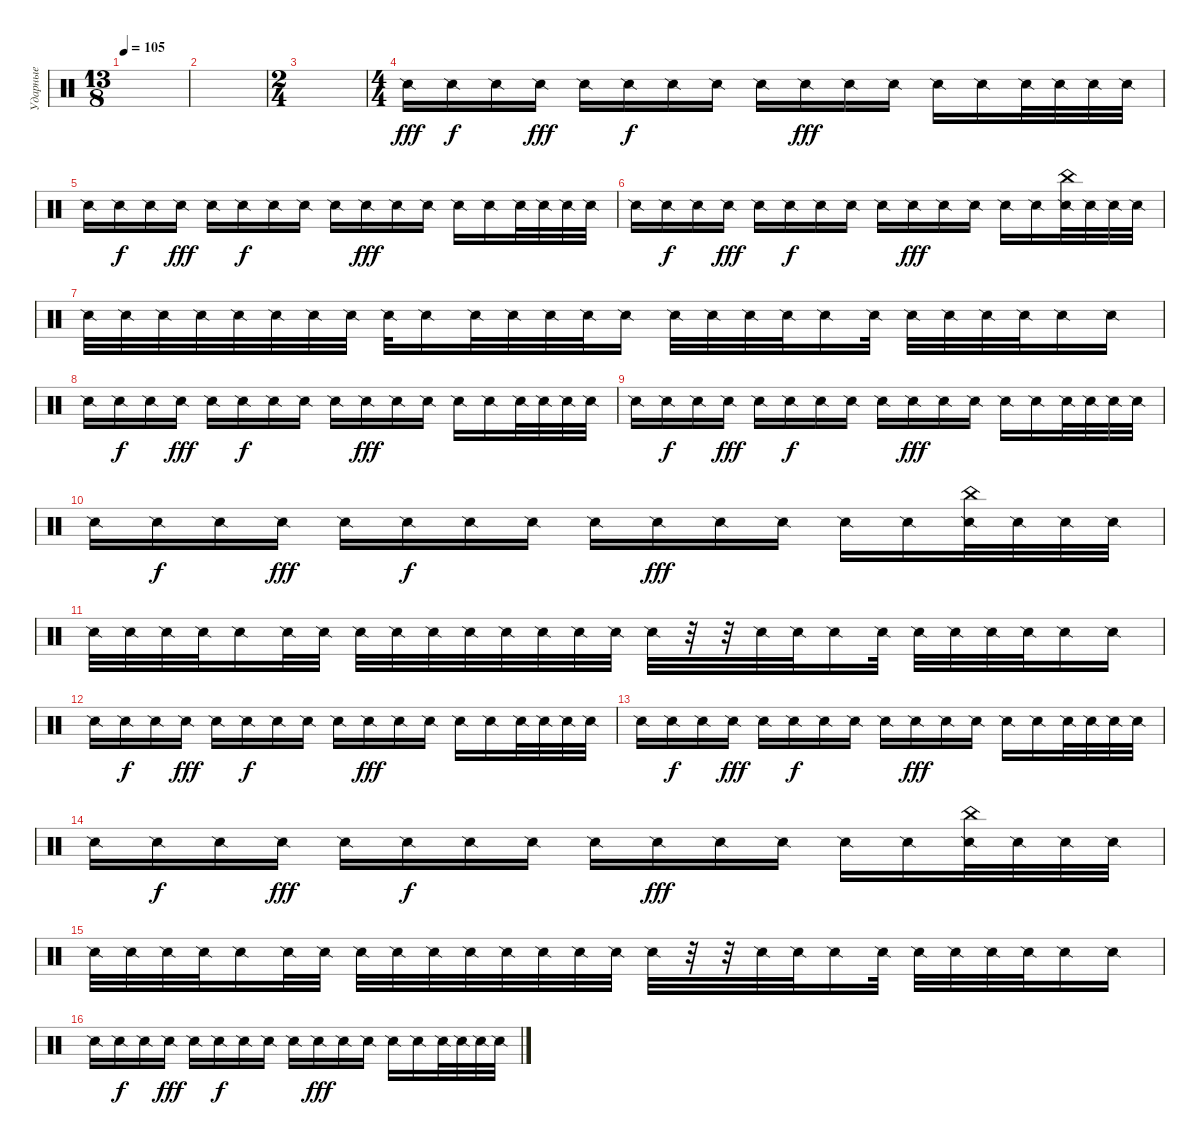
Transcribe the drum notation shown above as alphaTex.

\track ("Ударные" "Ударные") {instrument percussion}
\staff {score}
\articulation defaults
\ts (13 8)
\tempo 105
\clef neutral
\ks c
|
|
\ts (2 4)
|
\ts (4 4)
"Snare (side stick) 2".16{dy fff} "Snare (side stick) 2".16{dy f} "Snare (side stick) 2".16 "Snare (side stick) 2".16{dy fff} "Snare (side stick) 2".16 "Snare (side stick) 2".16{dy f} "Snare (side stick) 2".16 "Snare (side stick) 2".16 "Snare (side stick) 2".16 "Snare (side stick) 2".16{dy fff} "Snare (side stick) 2".16 "Snare (side stick) 2".16 "Snare (side stick) 2".16 "Snare (side stick) 2".16 "Snare (side stick) 2".32 "Snare (side stick) 2".32 "Snare (side stick) 2".32 "Snare (side stick) 2".32 |
"Snare (side stick) 2".16 "Snare (side stick) 2".16{dy f} "Snare (side stick) 2".16 "Snare (side stick) 2".16{dy fff} "Snare (side stick) 2".16 "Snare (side stick) 2".16{dy f} "Snare (side stick) 2".16 "Snare (side stick) 2".16 "Snare (side stick) 2".16 "Snare (side stick) 2".16{dy fff} "Snare (side stick) 2".16 "Snare (side stick) 2".16 "Snare (side stick) 2".16 "Snare (side stick) 2".16 "Snare (side stick) 2".32 "Snare (side stick) 2".32 "Snare (side stick) 2".32 "Snare (side stick) 2".32 |
"Snare (side stick) 2".16 "Snare (side stick) 2".16{dy f} "Snare (side stick) 2".16 "Snare (side stick) 2".16{dy fff} "Snare (side stick) 2".16 "Snare (side stick) 2".16{dy f} "Snare (side stick) 2".16 "Snare (side stick) 2".16 "Snare (side stick) 2".16 "Snare (side stick) 2".16{dy fff} "Snare (side stick) 2".16 "Snare (side stick) 2".16 "Snare (side stick) 2".16 "Snare (side stick) 2".16 ("China (hit)" "Snare (side stick) 2").32 "Snare (side stick) 2".32 "Snare (side stick) 2".32 "Snare (side stick) 2".32 |
"Snare (side stick) 2".32 "Snare (side stick) 2".32 "Snare (side stick) 2".32 "Snare (side stick) 2".32 "Snare (side stick) 2".32 "Snare (side stick) 2".32 "Snare (side stick) 2".32 "Snare (side stick) 2".32 "Snare (side stick) 2".32 "Snare (side stick) 2".16 "Snare (side stick) 2".32 "Snare (side stick) 2".32 "Snare (side stick) 2".32 "Snare (side stick) 2".32 "Snare (side stick) 2".16 "Snare (side stick) 2".32 "Snare (side stick) 2".32 "Snare (side stick) 2".32 "Snare (side stick) 2".32 "Snare (side stick) 2".16 "Snare (side stick) 2".32 "Snare (side stick) 2".32 "Snare (side stick) 2".32 "Snare (side stick) 2".32 "Snare (side stick) 2".32 "Snare (side stick) 2".16 "Snare (side stick) 2".16 |
"Snare (side stick) 2".16 "Snare (side stick) 2".16{dy f} "Snare (side stick) 2".16 "Snare (side stick) 2".16{dy fff} "Snare (side stick) 2".16 "Snare (side stick) 2".16{dy f} "Snare (side stick) 2".16 "Snare (side stick) 2".16 "Snare (side stick) 2".16 "Snare (side stick) 2".16{dy fff} "Snare (side stick) 2".16 "Snare (side stick) 2".16 "Snare (side stick) 2".16 "Snare (side stick) 2".16 "Snare (side stick) 2".32 "Snare (side stick) 2".32 "Snare (side stick) 2".32 "Snare (side stick) 2".32 |
"Snare (side stick) 2".16 "Snare (side stick) 2".16{dy f} "Snare (side stick) 2".16 "Snare (side stick) 2".16{dy fff} "Snare (side stick) 2".16 "Snare (side stick) 2".16{dy f} "Snare (side stick) 2".16 "Snare (side stick) 2".16 "Snare (side stick) 2".16 "Snare (side stick) 2".16{dy fff} "Snare (side stick) 2".16 "Snare (side stick) 2".16 "Snare (side stick) 2".16 "Snare (side stick) 2".16 "Snare (side stick) 2".32 "Snare (side stick) 2".32 "Snare (side stick) 2".32 "Snare (side stick) 2".32 |
"Snare (side stick) 2".16 "Snare (side stick) 2".16{dy f} "Snare (side stick) 2".16 "Snare (side stick) 2".16{dy fff} "Snare (side stick) 2".16 "Snare (side stick) 2".16{dy f} "Snare (side stick) 2".16 "Snare (side stick) 2".16 "Snare (side stick) 2".16 "Snare (side stick) 2".16{dy fff} "Snare (side stick) 2".16 "Snare (side stick) 2".16 "Snare (side stick) 2".16 "Snare (side stick) 2".16 ("China (hit)" "Snare (side stick) 2").32 "Snare (side stick) 2".32 "Snare (side stick) 2".32 "Snare (side stick) 2".32 |
"Snare (side stick) 2".32 "Snare (side stick) 2".32 "Snare (side stick) 2".32 "Snare (side stick) 2".32 "Snare (side stick) 2".16 "Snare (side stick) 2".32 "Snare (side stick) 2".32 "Snare (side stick) 2".32 "Snare (side stick) 2".32 "Snare (side stick) 2".32 "Snare (side stick) 2".32 "Snare (side stick) 2".32 "Snare (side stick) 2".32 "Snare (side stick) 2".32 "Snare (side stick) 2".32 "Snare (side stick) 2".32 r.32 r.32 "Snare (side stick) 2".32 "Snare (side stick) 2".32 "Snare (side stick) 2".16 "Snare (side stick) 2".32 "Snare (side stick) 2".32 "Snare (side stick) 2".32 "Snare (side stick) 2".32 "Snare (side stick) 2".32 "Snare (side stick) 2".16 "Snare (side stick) 2".16 |
"Snare (side stick) 2".16 "Snare (side stick) 2".16{dy f} "Snare (side stick) 2".16 "Snare (side stick) 2".16{dy fff} "Snare (side stick) 2".16 "Snare (side stick) 2".16{dy f} "Snare (side stick) 2".16 "Snare (side stick) 2".16 "Snare (side stick) 2".16 "Snare (side stick) 2".16{dy fff} "Snare (side stick) 2".16 "Snare (side stick) 2".16 "Snare (side stick) 2".16 "Snare (side stick) 2".16 "Snare (side stick) 2".32 "Snare (side stick) 2".32 "Snare (side stick) 2".32 "Snare (side stick) 2".32 |
"Snare (side stick) 2".16 "Snare (side stick) 2".16{dy f} "Snare (side stick) 2".16 "Snare (side stick) 2".16{dy fff} "Snare (side stick) 2".16 "Snare (side stick) 2".16{dy f} "Snare (side stick) 2".16 "Snare (side stick) 2".16 "Snare (side stick) 2".16 "Snare (side stick) 2".16{dy fff} "Snare (side stick) 2".16 "Snare (side stick) 2".16 "Snare (side stick) 2".16 "Snare (side stick) 2".16 "Snare (side stick) 2".32 "Snare (side stick) 2".32 "Snare (side stick) 2".32 "Snare (side stick) 2".32 |
"Snare (side stick) 2".16 "Snare (side stick) 2".16{dy f} "Snare (side stick) 2".16 "Snare (side stick) 2".16{dy fff} "Snare (side stick) 2".16 "Snare (side stick) 2".16{dy f} "Snare (side stick) 2".16 "Snare (side stick) 2".16 "Snare (side stick) 2".16 "Snare (side stick) 2".16{dy fff} "Snare (side stick) 2".16 "Snare (side stick) 2".16 "Snare (side stick) 2".16 "Snare (side stick) 2".16 ("China (hit)" "Snare (side stick) 2").32 "Snare (side stick) 2".32 "Snare (side stick) 2".32 "Snare (side stick) 2".32 |
"Snare (side stick) 2".32 "Snare (side stick) 2".32 "Snare (side stick) 2".32 "Snare (side stick) 2".32 "Snare (side stick) 2".16 "Snare (side stick) 2".32 "Snare (side stick) 2".32 "Snare (side stick) 2".32 "Snare (side stick) 2".32 "Snare (side stick) 2".32 "Snare (side stick) 2".32 "Snare (side stick) 2".32 "Snare (side stick) 2".32 "Snare (side stick) 2".32 "Snare (side stick) 2".32 "Snare (side stick) 2".32 r.32 r.32 "Snare (side stick) 2".32 "Snare (side stick) 2".32 "Snare (side stick) 2".16 "Snare (side stick) 2".32 "Snare (side stick) 2".32 "Snare (side stick) 2".32 "Snare (side stick) 2".32 "Snare (side stick) 2".32 "Snare (side stick) 2".16 "Snare (side stick) 2".16 |
"Snare (side stick) 2".16 "Snare (side stick) 2".16{dy f} "Snare (side stick) 2".16 "Snare (side stick) 2".16{dy fff} "Snare (side stick) 2".16 "Snare (side stick) 2".16{dy f} "Snare (side stick) 2".16 "Snare (side stick) 2".16 "Snare (side stick) 2".16 "Snare (side stick) 2".16{dy fff} "Snare (side stick) 2".16 "Snare (side stick) 2".16 "Snare (side stick) 2".16 "Snare (side stick) 2".16 "Snare (side stick) 2".32 "Snare (side stick) 2".32 "Snare (side stick) 2".32 "Snare (side stick) 2".32
